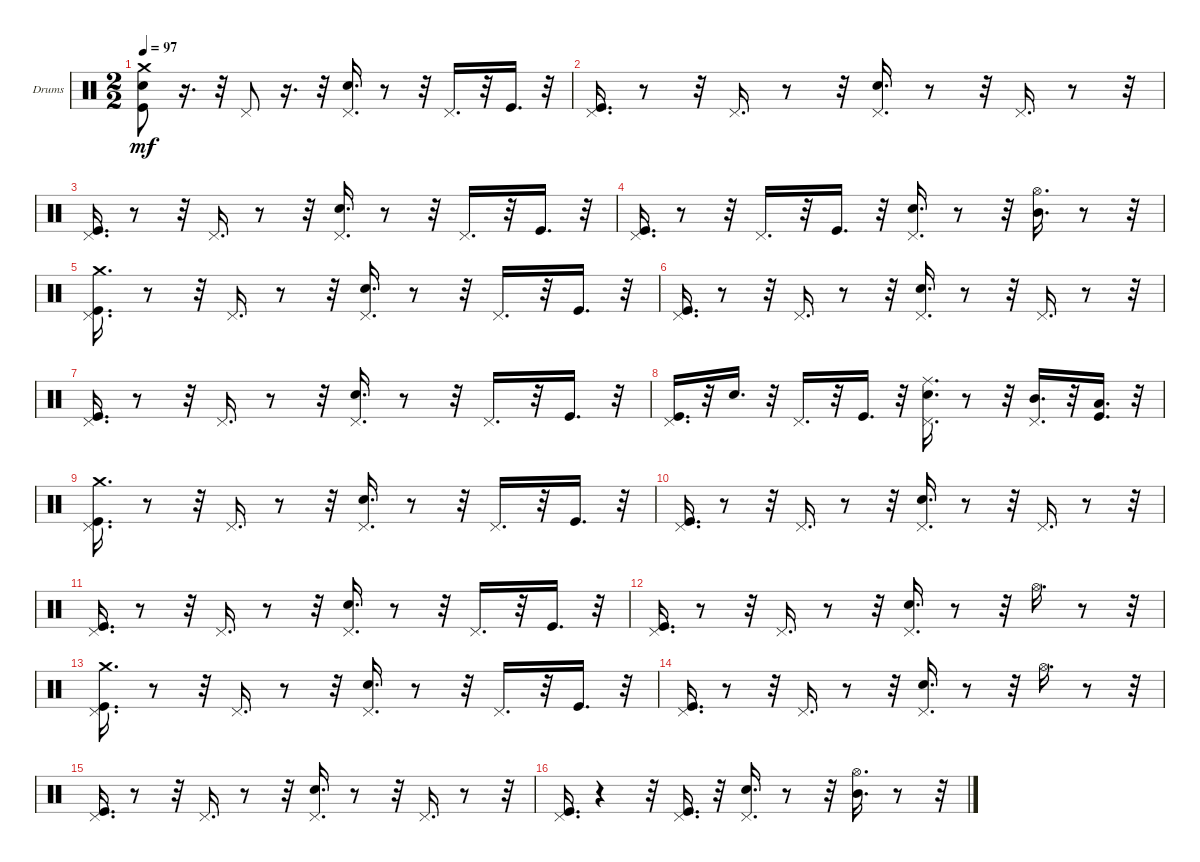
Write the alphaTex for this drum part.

\bracketExtendMode groupsimilarinstruments
\firstSystemTrackNameOrientation horizontal
\otherSystemsTrackNameOrientation horizontal
\track ("Percusion" "Drums") {instrument percussion}
\staff {score}
\articulation defaults
\ts (2 2)
\tempo 97
\clef neutral
\ks c
("Crash medium (hit)" "Snare (hit) 2" "Kick (hit)").8{dy mf} r.16{d} r.32 "Pedal Hi-Hat (hit)".8 r.16{d} r.32 ("Pedal Hi-Hat (hit)" "Snare (hit) 2").16{d} r.8 r.32 "Pedal Hi-Hat (hit)".16{d} r.32 "Kick (hit)".16{d} r.32 |
("Pedal Hi-Hat (hit)" "Kick (hit)").16{d} r.8 r.32 "Pedal Hi-Hat (hit)".16{d} r.8 r.32 ("Pedal Hi-Hat (hit)" "Snare (hit) 2").16{d} r.8 r.32 "Pedal Hi-Hat (hit)".16{d} r.8 r.32 |
("Pedal Hi-Hat (hit)" "Kick (hit)").16{d} r.8 r.32 "Pedal Hi-Hat (hit)".16{d} r.8 r.32 ("Pedal Hi-Hat (hit)" "Snare (hit) 2").16{d} r.8 r.32 "Pedal Hi-Hat (hit)".16{d} r.32 "Kick (hit)".16{d} r.32 |
("Pedal Hi-Hat (hit)" "Kick (hit)").16{d} r.8 r.32 "Pedal Hi-Hat (hit)".16{d} r.32 "Kick (hit)".16{d} r.32 ("Pedal Hi-Hat (hit)" "Snare (hit) 2").16{d} r.8 r.32 ("Hi-Hat (open)" "Mid Tom (hit)").16{d} r.8 r.32 |
("Crash medium (hit)" "Pedal Hi-Hat (hit)" "Kick (hit)").16{d} r.8 r.32 "Pedal Hi-Hat (hit)".16{d} r.8 r.32 ("Pedal Hi-Hat (hit)" "Snare (hit) 2").16{d} r.8 r.32 "Pedal Hi-Hat (hit)".16{d} r.32 "Kick (hit)".16{d} r.32 |
("Pedal Hi-Hat (hit)" "Kick (hit)").16{d} r.8 r.32 "Pedal Hi-Hat (hit)".16{d} r.8 r.32 ("Pedal Hi-Hat (hit)" "Snare (hit) 2").16{d} r.8 r.32 "Pedal Hi-Hat (hit)".16{d} r.8 r.32 |
("Pedal Hi-Hat (hit)" "Kick (hit)").16{d} r.8 r.32 "Pedal Hi-Hat (hit)".16{d} r.8 r.32 ("Pedal Hi-Hat (hit)" "Snare (hit) 2").16{d} r.8 r.32 "Pedal Hi-Hat (hit)".16{d} r.32 "Kick (hit)".16{d} r.32 |
("Pedal Hi-Hat (hit)" "Kick (hit)").16{d} r.32 "Snare (hit) 2".16{d} r.32 "Pedal Hi-Hat (hit)".16{d} r.32 "Kick (hit)".16{d} r.32 ("Ride (middle)" "Pedal Hi-Hat (hit)" "Snare (hit) 2").16{d} r.8 r.32 ("Pedal Hi-Hat (hit)" "Mid Tom (hit)").16{d} r.32 ("Kick (hit)" "Low Tom (hit)").16{d} r.32 |
("Crash medium (hit)" "Pedal Hi-Hat (hit)" "Kick (hit)").16{d} r.8 r.32 "Pedal Hi-Hat (hit)".16{d} r.8 r.32 ("Pedal Hi-Hat (hit)" "Snare (hit) 2").16{d} r.8 r.32 "Pedal Hi-Hat (hit)".16{d} r.32 "Kick (hit)".16{d} r.32 |
("Pedal Hi-Hat (hit)" "Kick (hit)").16{d} r.8 r.32 "Pedal Hi-Hat (hit)".16{d} r.8 r.32 ("Pedal Hi-Hat (hit)" "Snare (hit) 2").16{d} r.8 r.32 "Pedal Hi-Hat (hit)".16{d} r.8 r.32 |
("Pedal Hi-Hat (hit)" "Kick (hit)").16{d} r.8 r.32 "Pedal Hi-Hat (hit)".16{d} r.8 r.32 ("Pedal Hi-Hat (hit)" "Snare (hit) 2").16{d} r.8 r.32 "Pedal Hi-Hat (hit)".16{d} r.32 "Kick (hit)".16{d} r.32 |
("Pedal Hi-Hat (hit)" "Kick (hit)").16{d} r.8 r.32 "Pedal Hi-Hat (hit)".16{d} r.8 r.32 ("Pedal Hi-Hat (hit)" "Snare (hit) 2").16{d} r.8 r.32 "Hi-Hat (open)".16{d} r.8 r.32 |
("Crash medium (hit)" "Pedal Hi-Hat (hit)" "Kick (hit)").16{d} r.8 r.32 "Pedal Hi-Hat (hit)".16{d} r.8 r.32 ("Pedal Hi-Hat (hit)" "Snare (hit) 2").16{d} r.8 r.32 "Pedal Hi-Hat (hit)".16{d} r.32 "Kick (hit)".16{d} r.32 |
("Pedal Hi-Hat (hit)" "Kick (hit)").16{d} r.8 r.32 "Pedal Hi-Hat (hit)".16{d} r.8 r.32 ("Pedal Hi-Hat (hit)" "Snare (hit) 2").16{d} r.8 r.32 "Hi-Hat (open)".16{d} r.8 r.32 |
("Pedal Hi-Hat (hit)" "Kick (hit)").16{d} r.8 r.32 "Pedal Hi-Hat (hit)".16{d} r.8 r.32 ("Pedal Hi-Hat (hit)" "Snare (hit) 2").16{d} r.8 r.32 "Pedal Hi-Hat (hit)".16{d} r.8 r.32 |
("Pedal Hi-Hat (hit)" "Kick (hit)").16{d} r.4 r.32 ("Pedal Hi-Hat (hit)" "Kick (hit)").16{d} r.32 ("Pedal Hi-Hat (hit)" "Snare (hit) 2").16{d} r.8 r.32 ("Hi-Hat (open)" "Mid Tom (hit)").16{d} r.8 r.32
